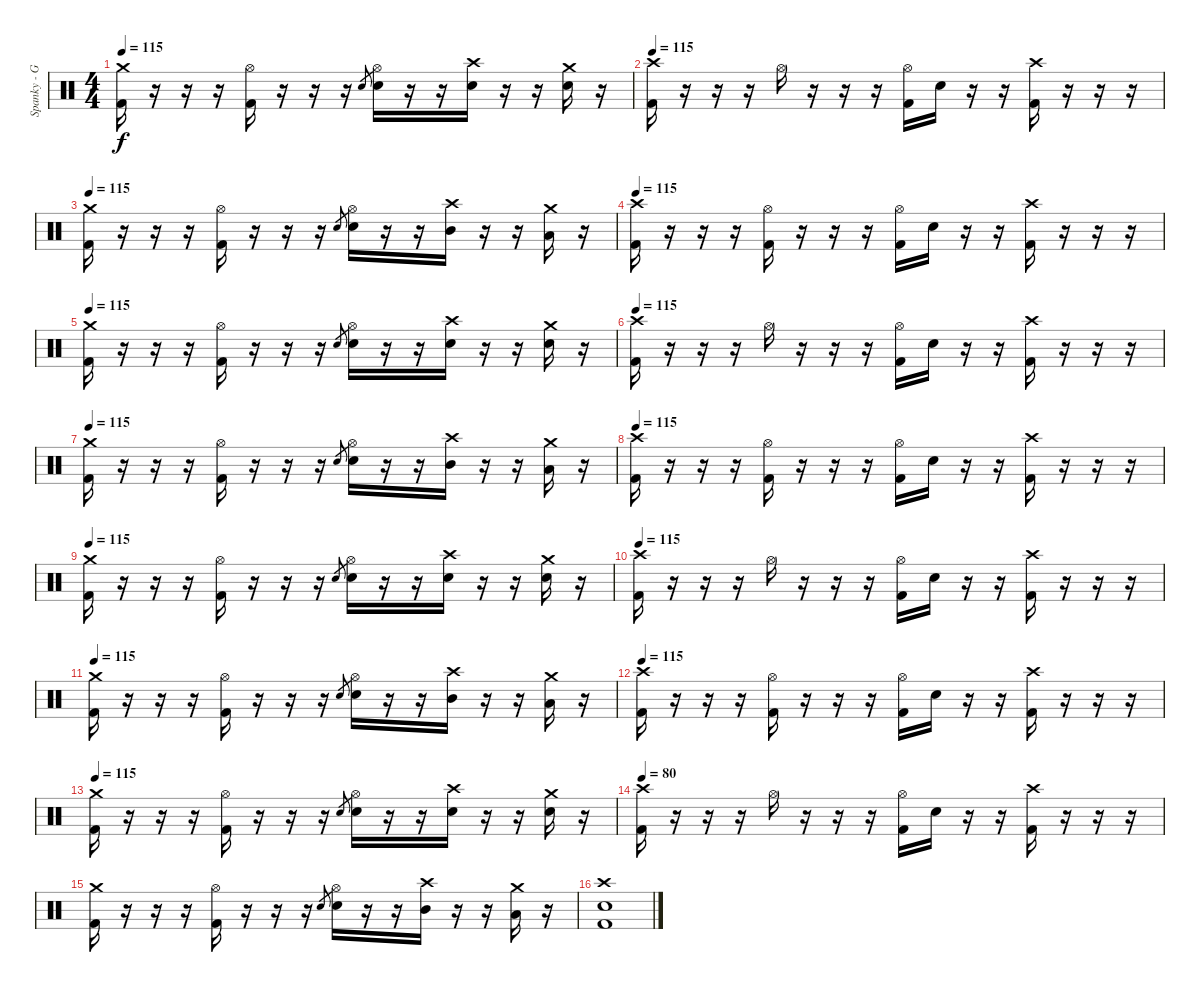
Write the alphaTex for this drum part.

\track ("Spanky - G (Ex-drummer)" "Spanky - G") {instrument percussion}
\staff {score}
\articulation defaults
\ts (4 4)
\tempo 115
\clef neutral
\ks c
("Crash medium (hit)" "Kick (hit) 2").16{dy f} r.16 r.16 r.16 ("Hi-Hat (open)" "Kick (hit) 2").16 r.16 r.16 r.16 "Electric Snare (hit)".8{gr} ("Hi-Hat (open)" "Electric Snare (hit)").16 r.16 r.16 ("Crash high (hit)" "Electric Snare (hit)").16 r.16 r.16 ("Crash medium (hit)" "Electric Snare (hit)").16 r.16 |
\tempo 115
("Crash high (hit)" "Kick (hit) 2").16 r.16 r.16 r.16 "Hi-Hat (open)".16 r.16 r.16 r.16 ("Hi-Hat (open)" "Kick (hit) 2").16 "Electric Snare (hit)".16 r.16 r.16 ("Crash high (hit)" "Kick (hit) 2").16 r.16 r.16 r.16 |
\tempo 115
("Crash medium (hit)" "Kick (hit) 2").16 r.16 r.16 r.16 ("Hi-Hat (open)" "Kick (hit) 2").16 r.16 r.16 r.16 "Electric Snare (hit)".8{gr} ("Hi-Hat (open)" "Electric Snare (hit)").16 r.16 r.16 ("Crash high (hit)" "Mid Tom (hit)").16 r.16 r.16 ("Crash medium (hit)" "Low Tom (hit)").16 r.16 |
\tempo 115
("Crash high (hit)" "Kick (hit) 2").16 r.16 r.16 r.16 ("Hi-Hat (open)" "Kick (hit) 2").16 r.16 r.16 r.16 ("Hi-Hat (open)" "Kick (hit) 2").16 "Electric Snare (hit)".16 r.16 r.16 ("Crash high (hit)" "Kick (hit) 2").16 r.16 r.16 r.16 |
\tempo 115
("Crash medium (hit)" "Kick (hit) 2").16 r.16 r.16 r.16 ("Hi-Hat (open)" "Kick (hit) 2").16 r.16 r.16 r.16 "Electric Snare (hit)".8{gr} ("Hi-Hat (open)" "Electric Snare (hit)").16 r.16 r.16 ("Crash high (hit)" "Electric Snare (hit)").16 r.16 r.16 ("Crash medium (hit)" "Electric Snare (hit)").16 r.16 |
\tempo 115
("Crash high (hit)" "Kick (hit) 2").16 r.16 r.16 r.16 "Hi-Hat (open)".16 r.16 r.16 r.16 ("Hi-Hat (open)" "Kick (hit) 2").16 "Electric Snare (hit)".16 r.16 r.16 ("Crash high (hit)" "Kick (hit) 2").16 r.16 r.16 r.16 |
\tempo 115
("Crash medium (hit)" "Kick (hit) 2").16 r.16 r.16 r.16 ("Hi-Hat (open)" "Kick (hit) 2").16 r.16 r.16 r.16 "Electric Snare (hit)".8{gr} ("Hi-Hat (open)" "Electric Snare (hit)").16 r.16 r.16 ("Crash high (hit)" "Mid Tom (hit)").16 r.16 r.16 ("Crash medium (hit)" "Low Tom (hit)").16 r.16 |
\tempo 115
("Crash high (hit)" "Kick (hit) 2").16 r.16 r.16 r.16 ("Hi-Hat (open)" "Kick (hit) 2").16 r.16 r.16 r.16 ("Hi-Hat (open)" "Kick (hit) 2").16 "Electric Snare (hit)".16 r.16 r.16 ("Crash high (hit)" "Kick (hit) 2").16 r.16 r.16 r.16 |
\tempo 115
("Crash medium (hit)" "Kick (hit) 2").16 r.16 r.16 r.16 ("Hi-Hat (open)" "Kick (hit) 2").16 r.16 r.16 r.16 "Electric Snare (hit)".8{gr} ("Hi-Hat (open)" "Electric Snare (hit)").16 r.16 r.16 ("Crash high (hit)" "Electric Snare (hit)").16 r.16 r.16 ("Crash medium (hit)" "Electric Snare (hit)").16 r.16 |
\tempo 115
("Crash high (hit)" "Kick (hit) 2").16 r.16 r.16 r.16 "Hi-Hat (open)".16 r.16 r.16 r.16 ("Hi-Hat (open)" "Kick (hit) 2").16 "Electric Snare (hit)".16 r.16 r.16 ("Crash high (hit)" "Kick (hit) 2").16 r.16 r.16 r.16 |
\tempo 115
("Crash medium (hit)" "Kick (hit) 2").16 r.16 r.16 r.16 ("Hi-Hat (open)" "Kick (hit) 2").16 r.16 r.16 r.16 "Electric Snare (hit)".8{gr} ("Hi-Hat (open)" "Electric Snare (hit)").16 r.16 r.16 ("Crash high (hit)" "Mid Tom (hit)").16 r.16 r.16 ("Crash medium (hit)" "Low Tom (hit)").16 r.16 |
\tempo 115
("Crash high (hit)" "Kick (hit) 2").16 r.16 r.16 r.16 ("Hi-Hat (open)" "Kick (hit) 2").16 r.16 r.16 r.16 ("Hi-Hat (open)" "Kick (hit) 2").16 "Electric Snare (hit)".16 r.16 r.16 ("Crash high (hit)" "Kick (hit) 2").16 r.16 r.16 r.16 |
\tempo 115
("Crash medium (hit)" "Kick (hit) 2").16 r.16 r.16 r.16 ("Hi-Hat (open)" "Kick (hit) 2").16 r.16 r.16 r.16 "Electric Snare (hit)".8{gr} ("Hi-Hat (open)" "Electric Snare (hit)").16 r.16 r.16 ("Crash high (hit)" "Electric Snare (hit)").16 r.16 r.16 ("Crash medium (hit)" "Electric Snare (hit)").16 r.16 |
\tempo 80
("Crash high (hit)" "Kick (hit) 2").16 r.16 r.16 r.16 "Hi-Hat (open)".16 r.16 r.16 r.16 ("Hi-Hat (open)" "Kick (hit) 2").16 "Electric Snare (hit)".16 r.16 r.16 ("Crash high (hit)" "Kick (hit) 2").16 r.16 r.16 r.16 |
("Crash medium (hit)" "Kick (hit) 2").16 r.16 r.16 r.16 ("Hi-Hat (open)" "Kick (hit) 2").16 r.16 r.16 r.16 "Electric Snare (hit)".8{gr} ("Hi-Hat (open)" "Electric Snare (hit)").16 r.16 r.16 ("Crash high (hit)" "Mid Tom (hit)").16 r.16 r.16 ("Crash medium (hit)" "Low Tom (hit)").16 r.16 |
("Crash high (hit)" "Electric Snare (hit)" "Kick (hit) 2").1
